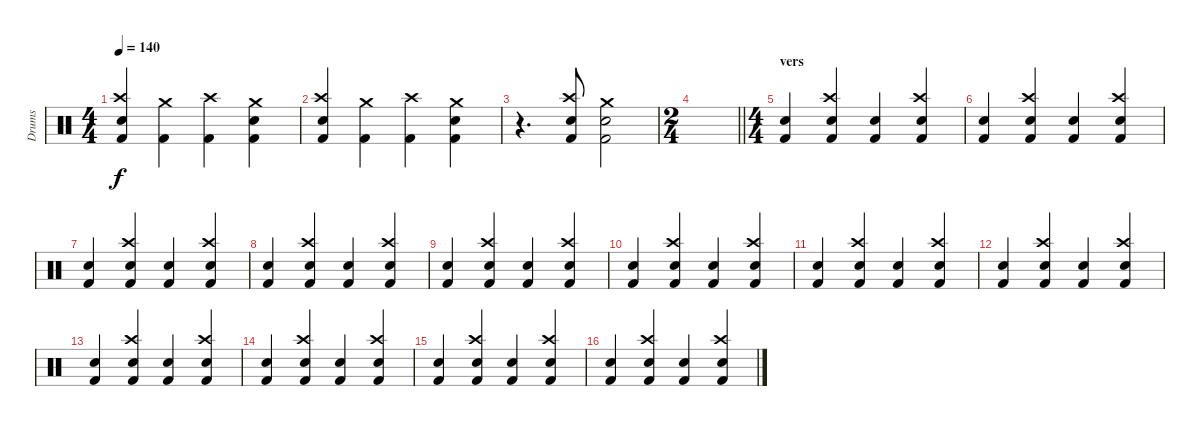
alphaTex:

\track ("Drums" "Drums") {instrument percussion}
\staff {score}
\articulation defaults
\ts (4 4)
\tempo 140
\clef neutral
\ks c
("Electric Snare (hit)" "Crash high (hit)" "Kick (hit) 2").4{dy f} ("Kick (hit) 2" "Crash medium (hit)").4 ("Kick (hit) 2" "Crash high (hit)").4 ("Electric Snare (hit)" "Kick (hit) 2" "Crash medium (hit)").4 |
("Electric Snare (hit)" "Crash high (hit)" "Kick (hit) 2").4 ("Kick (hit) 2" "Crash medium (hit)").4 ("Kick (hit) 2" "Crash high (hit)").4 ("Electric Snare (hit)" "Kick (hit) 2" "Crash medium (hit)").4 |
r.4{d} ("Electric Snare (hit)" "Kick (hit) 2" "Crash high (hit)").8 ("Electric Snare (hit)" "Kick (hit) 2" "Crash medium (hit)").2 |
\ts (2 4)
\barLineRight lightlight
|
\ts (4 4)
\section ("" "vers")
("Electric Snare (hit)" "Kick (hit) 2").4 ("Electric Snare (hit)" "Crash high (hit)" "Kick (hit) 2").4 ("Electric Snare (hit)" "Kick (hit) 2").4 ("Electric Snare (hit)" "Crash high (hit)" "Kick (hit) 2").4 |
("Electric Snare (hit)" "Kick (hit) 2").4 ("Electric Snare (hit)" "Crash high (hit)" "Kick (hit) 2").4 ("Electric Snare (hit)" "Kick (hit) 2").4 ("Electric Snare (hit)" "Crash high (hit)" "Kick (hit) 2").4 |
("Electric Snare (hit)" "Kick (hit) 2").4 ("Electric Snare (hit)" "Crash high (hit)" "Kick (hit) 2").4 ("Electric Snare (hit)" "Kick (hit) 2").4 ("Electric Snare (hit)" "Crash high (hit)" "Kick (hit) 2").4 |
("Electric Snare (hit)" "Kick (hit) 2").4 ("Electric Snare (hit)" "Crash high (hit)" "Kick (hit) 2").4 ("Electric Snare (hit)" "Kick (hit) 2").4 ("Electric Snare (hit)" "Crash high (hit)" "Kick (hit) 2").4 |
("Electric Snare (hit)" "Kick (hit) 2").4 ("Electric Snare (hit)" "Crash high (hit)" "Kick (hit) 2").4 ("Electric Snare (hit)" "Kick (hit) 2").4 ("Electric Snare (hit)" "Crash high (hit)" "Kick (hit) 2").4 |
("Electric Snare (hit)" "Kick (hit) 2").4 ("Electric Snare (hit)" "Crash high (hit)" "Kick (hit) 2").4 ("Electric Snare (hit)" "Kick (hit) 2").4 ("Electric Snare (hit)" "Crash high (hit)" "Kick (hit) 2").4 |
("Electric Snare (hit)" "Kick (hit) 2").4 ("Electric Snare (hit)" "Crash high (hit)" "Kick (hit) 2").4 ("Electric Snare (hit)" "Kick (hit) 2").4 ("Electric Snare (hit)" "Crash high (hit)" "Kick (hit) 2").4 |
("Electric Snare (hit)" "Kick (hit) 2").4 ("Electric Snare (hit)" "Crash high (hit)" "Kick (hit) 2").4 ("Electric Snare (hit)" "Kick (hit) 2").4 ("Electric Snare (hit)" "Crash high (hit)" "Kick (hit) 2").4 |
("Electric Snare (hit)" "Kick (hit) 2").4 ("Electric Snare (hit)" "Crash high (hit)" "Kick (hit) 2").4 ("Electric Snare (hit)" "Kick (hit) 2").4 ("Electric Snare (hit)" "Crash high (hit)" "Kick (hit) 2").4 |
("Electric Snare (hit)" "Kick (hit) 2").4 ("Electric Snare (hit)" "Crash high (hit)" "Kick (hit) 2").4 ("Electric Snare (hit)" "Kick (hit) 2").4 ("Electric Snare (hit)" "Crash high (hit)" "Kick (hit) 2").4 |
("Electric Snare (hit)" "Kick (hit) 2").4 ("Electric Snare (hit)" "Crash high (hit)" "Kick (hit) 2").4 ("Electric Snare (hit)" "Kick (hit) 2").4 ("Electric Snare (hit)" "Crash high (hit)" "Kick (hit) 2").4 |
("Electric Snare (hit)" "Kick (hit) 2").4 ("Electric Snare (hit)" "Crash high (hit)" "Kick (hit) 2").4 ("Electric Snare (hit)" "Kick (hit) 2").4 ("Electric Snare (hit)" "Crash high (hit)" "Kick (hit) 2").4
